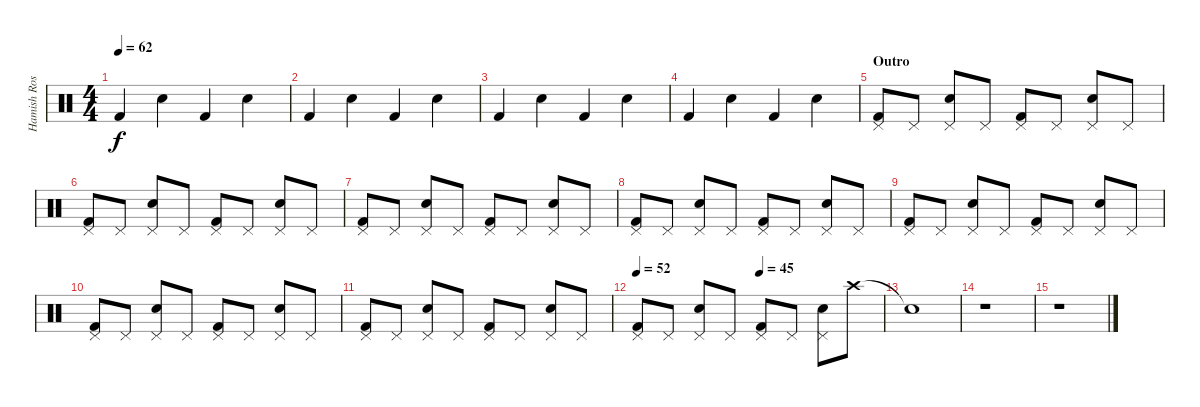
\track ("Hamish Rosser" "Hamish Ros") {instrument percussion}
\staff {score}
\articulation defaults
\ts (4 4)
\tempo 62
\clef neutral
\ks c "Kick (hit) 2".4{dy f} "Electric Snare (hit)".4 "Kick (hit) 2".4 "Electric Snare (hit)".4
|
"Kick (hit) 2".4 "Electric Snare (hit)".4 "Kick (hit) 2".4 "Electric Snare (hit)".4 |
"Kick (hit) 2".4 "Electric Snare (hit)".4 "Kick (hit) 2".4 "Electric Snare (hit)".4 |
"Kick (hit) 2".4 "Electric Snare (hit)".4 "Kick (hit) 2".4 "Electric Snare (hit)".4 |
\section ("" "Outro")
("Pedal Hi-Hat (hit)" "Kick (hit) 2").8 "Pedal Hi-Hat (hit)".8 ("Pedal Hi-Hat (hit)" "Electric Snare (hit)").8 "Pedal Hi-Hat (hit)".8 ("Pedal Hi-Hat (hit)" "Kick (hit) 2").8 "Pedal Hi-Hat (hit)".8 ("Pedal Hi-Hat (hit)" "Electric Snare (hit)").8 "Pedal Hi-Hat (hit)".8 |
("Pedal Hi-Hat (hit)" "Kick (hit) 2").8 "Pedal Hi-Hat (hit)".8 ("Pedal Hi-Hat (hit)" "Electric Snare (hit)").8 "Pedal Hi-Hat (hit)".8 ("Pedal Hi-Hat (hit)" "Kick (hit) 2").8 "Pedal Hi-Hat (hit)".8 ("Pedal Hi-Hat (hit)" "Electric Snare (hit)").8 "Pedal Hi-Hat (hit)".8 |
("Pedal Hi-Hat (hit)" "Kick (hit) 2").8 "Pedal Hi-Hat (hit)".8 ("Pedal Hi-Hat (hit)" "Electric Snare (hit)").8 "Pedal Hi-Hat (hit)".8 ("Pedal Hi-Hat (hit)" "Kick (hit) 2").8 "Pedal Hi-Hat (hit)".8 ("Pedal Hi-Hat (hit)" "Electric Snare (hit)").8 "Pedal Hi-Hat (hit)".8 |
("Pedal Hi-Hat (hit)" "Kick (hit) 2").8 "Pedal Hi-Hat (hit)".8 ("Pedal Hi-Hat (hit)" "Electric Snare (hit)").8 "Pedal Hi-Hat (hit)".8 ("Pedal Hi-Hat (hit)" "Kick (hit) 2").8 "Pedal Hi-Hat (hit)".8 ("Pedal Hi-Hat (hit)" "Electric Snare (hit)").8 "Pedal Hi-Hat (hit)".8 |
("Pedal Hi-Hat (hit)" "Kick (hit) 2").8 "Pedal Hi-Hat (hit)".8 ("Pedal Hi-Hat (hit)" "Electric Snare (hit)").8 "Pedal Hi-Hat (hit)".8 ("Pedal Hi-Hat (hit)" "Kick (hit) 2").8 "Pedal Hi-Hat (hit)".8 ("Pedal Hi-Hat (hit)" "Electric Snare (hit)").8 "Pedal Hi-Hat (hit)".8 |
("Pedal Hi-Hat (hit)" "Kick (hit) 2").8 "Pedal Hi-Hat (hit)".8 ("Pedal Hi-Hat (hit)" "Electric Snare (hit)").8 "Pedal Hi-Hat (hit)".8 ("Pedal Hi-Hat (hit)" "Kick (hit) 2").8 "Pedal Hi-Hat (hit)".8 ("Pedal Hi-Hat (hit)" "Electric Snare (hit)").8 "Pedal Hi-Hat (hit)".8 |
("Pedal Hi-Hat (hit)" "Kick (hit) 2").8 "Pedal Hi-Hat (hit)".8 ("Pedal Hi-Hat (hit)" "Electric Snare (hit)").8 "Pedal Hi-Hat (hit)".8 ("Pedal Hi-Hat (hit)" "Kick (hit) 2").8 "Pedal Hi-Hat (hit)".8 ("Pedal Hi-Hat (hit)" "Electric Snare (hit)").8 "Pedal Hi-Hat (hit)".8 |
\tempo 52
\tempo (45 0.5)
("Pedal Hi-Hat (hit)" "Kick (hit) 2").8 "Pedal Hi-Hat (hit)".8 ("Pedal Hi-Hat (hit)" "Electric Snare (hit)").8 "Pedal Hi-Hat (hit)".8 ("Pedal Hi-Hat (hit)" "Kick (hit) 2").8 "Pedal Hi-Hat (hit)".8 ("Pedal Hi-Hat (hit)" "Electric Snare (hit)").8 "Crash high (hit)".8 |
"Snare (hit)"{t}.1 |
r.1 |
r.1
